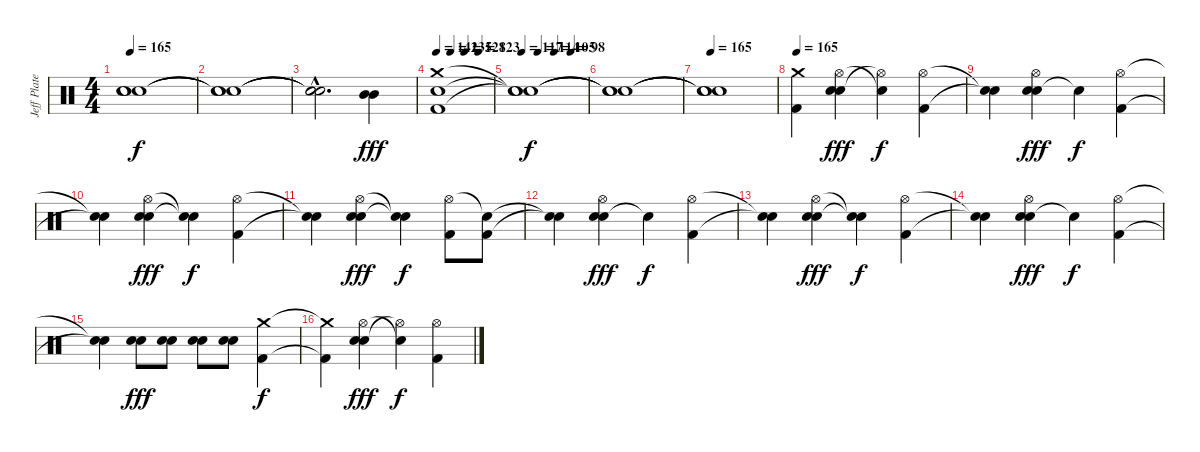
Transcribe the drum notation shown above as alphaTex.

\track ("Jeff Plate" "Jeff Plate") {instrument percussion}
\staff {score}
\articulation defaults
\ts (4 4)
\tempo 165
\clef neutral
\ks c
("Snare (hit)"{t} "Snare (hit)"{t} "Snare (hit)"{t}).1{dy f} |
("Snare (hit)"{t} "Snare (hit)"{t} "Snare (hit)"{t}).1 |
("Snare (hit)"{hac t} "Snare (hit)"{hac t} "Snare (hit)"{hac t}).2{d} ("Mid Tom (hit)" "Mid Tom (hit)").4{dy fff} |
\tempo 142
\tempo (135 0.25)
\tempo (128 0.5)
\tempo (123 0.75)
("Crash medium (hit)" "Electric Snare (hit)" "Kick (hit) 2").1 |
\tempo 117
\tempo (114 0.25)
\tempo (105 0.5)
\tempo (98 0.75)
("Snare (hit)"{t} "Snare (hit)"{t} "Snare (hit)"{t}).1{dy f} |
("Snare (hit)"{t} "Snare (hit)"{t} "Snare (hit)"{t}).1 |
\tempo 165
("Snare (hit)"{t} "Snare (hit)"{t} "Snare (hit)"{t}).1 |
\tempo 165
("Crash medium (hit)" "Kick (hit) 2").4 ("Electric Snare (hit)" "Hi-Hat (open)" "Electric Snare (hit)").4{dy fff} ("Hi-Hat (open)"{t} "Electric Snare (hit)"{t}).4{dy f} ("Hi-Hat (open)" "Kick (hit) 2").4 |
("Snare (hit)"{t} "Snare (hit)"{t}).4 ("Electric Snare (hit)" "Hi-Hat (open)" "Electric Snare (hit)").4{dy fff} "Snare (hit)"{t}.4{dy f} ("Hi-Hat (open)" "Kick (hit) 2").4 |
("Snare (hit)"{t} "Snare (hit)"{t}).4 ("Electric Snare (hit)" "Hi-Hat (open)" "Electric Snare (hit)").4{dy fff} ("Snare (hit)"{t} "Snare (hit)"{t}).4{dy f} ("Hi-Hat (open)" "Kick (hit) 2").4 |
("Snare (hit)"{t} "Snare (hit)"{t}).4 ("Electric Snare (hit)" "Hi-Hat (open)" "Electric Snare (hit)").4{dy fff} ("Snare (hit)"{t} "Snare (hit)"{t}).4{dy f} ("Hi-Hat (open)" "Kick (hit) 2").8 ("Snare (hit)"{t} "Kick (hit) 2").8 |
("Snare (hit)"{t} "Snare (hit)"{t}).4 ("Electric Snare (hit)" "Hi-Hat (open)" "Electric Snare (hit)").4{dy fff} "Snare (hit)"{t}.4{dy f} ("Hi-Hat (open)" "Kick (hit) 2").4 |
("Snare (hit)"{t} "Snare (hit)"{t}).4 ("Electric Snare (hit)" "Hi-Hat (open)" "Electric Snare (hit)").4{dy fff} ("Snare (hit)"{t} "Snare (hit)"{t}).4{dy f} ("Hi-Hat (open)" "Kick (hit) 2").4 |
("Snare (hit)"{t} "Snare (hit)"{t}).4 ("Electric Snare (hit)" "Hi-Hat (open)" "Electric Snare (hit)").4{dy fff} "Snare (hit)"{t}.4{dy f} ("Hi-Hat (open)" "Kick (hit) 2").4 |
("Electric Snare (hit)"{t} "Snare (hit)"{t}).4 ("Electric Snare (hit)" "Electric Snare (hit)").8{dy fff} ("Electric Snare (hit)" "Electric Snare (hit)").8 ("Electric Snare (hit)" "Electric Snare (hit)").8 ("Electric Snare (hit)" "Electric Snare (hit)").8 ("Crash medium (hit)" "Kick (hit) 2").4{dy f} |
("Crash medium (hit)"{t} "Kick (hit) 2"{t}).4 ("Electric Snare (hit)" "Hi-Hat (open)" "Electric Snare (hit)").4{dy fff} ("Hi-Hat (open)"{t} "Electric Snare (hit)"{t}).4{dy f} ("Hi-Hat (open)" "Kick (hit) 2").4
